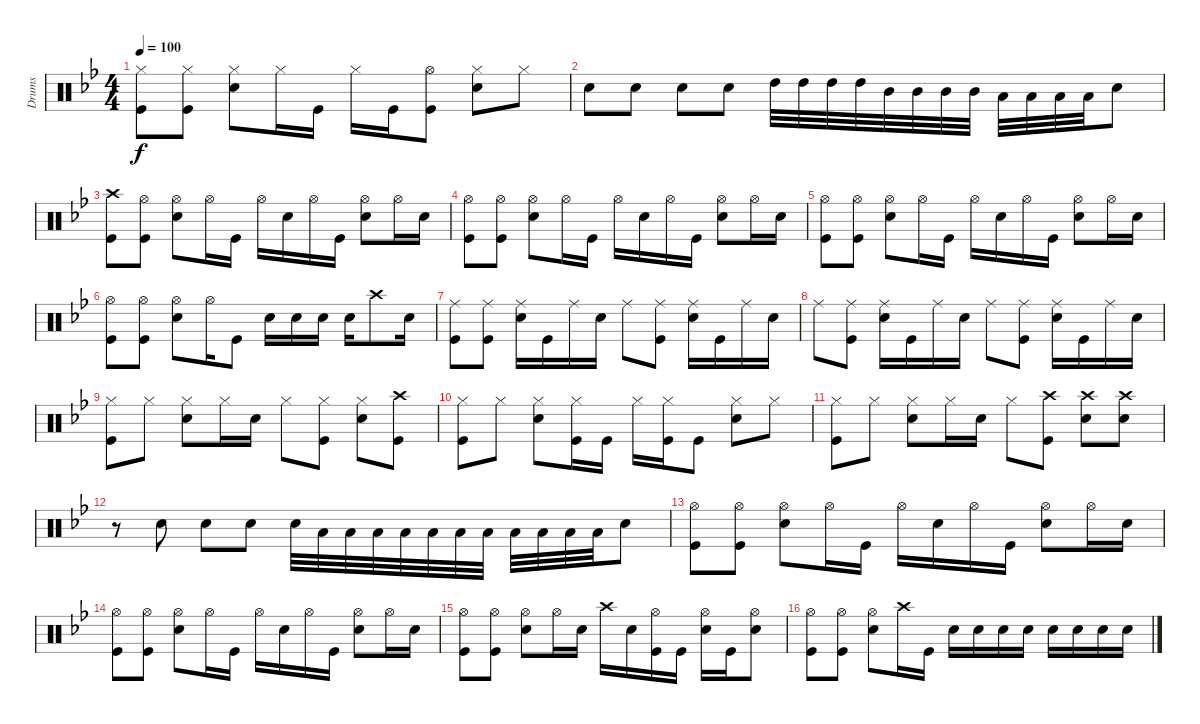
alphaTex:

\track ("Drums" "Drums") {instrument percussion}
\staff {score}
\articulation defaults
\ts (4 4)
\tempo 100
\clef neutral
\ks bb
("Hi-Hat (closed)" "Kick (hit)").8{dy f} ("Hi-Hat (closed)" "Kick (hit)").8 ("Hi-Hat (closed)" "Snare (hit) 2").8 "Hi-Hat (closed)".16 "Kick (hit)".16 "Hi-Hat (closed)".16 "Kick (hit)".16 ("Hi-Hat (open)" "Kick (hit)").8 ("Hi-Hat (closed)" "Snare (hit) 2").8 "Hi-Hat (closed)".8 |
"Snare (hit) 2".8 "Snare (hit) 2".8 "Snare (hit) 2".8 "Snare (hit) 2".8 "High Tom (hit)".32 "High Tom (hit)".32 "High Tom (hit)".32 "High Tom (hit)".32 "Mid Tom (hit)".32 "Mid Tom (hit)".32 "Mid Tom (hit)".32 "Mid Tom (hit)".32 "Low Floor Tom (hit)".32 "Low Floor Tom (hit)".32 "Low Floor Tom (hit)".32 "Low Floor Tom (hit)".32 "Snare (hit) 2".8 |
("Crash high (hit)" "Kick (hit)").8 ("Hi-Hat (open)" "Kick (hit)").8 ("Hi-Hat (open)" "Snare (hit) 2").8 "Hi-Hat (open)".16 "Kick (hit)".16 "Hi-Hat (open)".16 "Snare (hit) 2".16 "Hi-Hat (open)".16 "Kick (hit)".16 ("Hi-Hat (open)" "Snare (hit) 2").8 "Hi-Hat (open)".16 "Snare (hit) 2".16 |
("Hi-Hat (open)" "Kick (hit)").8 ("Hi-Hat (open)" "Kick (hit)").8 ("Hi-Hat (open)" "Snare (hit) 2").8 "Hi-Hat (open)".16 "Kick (hit)".16 "Hi-Hat (open)".16 "Snare (hit) 2".16 "Hi-Hat (open)".16 "Kick (hit)".16 ("Hi-Hat (open)" "Snare (hit) 2").8 "Hi-Hat (open)".16 "Snare (hit) 2".16 |
("Hi-Hat (open)" "Kick (hit)").8 ("Hi-Hat (open)" "Kick (hit)").8 ("Hi-Hat (open)" "Snare (hit) 2").8 "Hi-Hat (open)".16 "Kick (hit)".16 "Hi-Hat (open)".16 "Snare (hit) 2".16 "Hi-Hat (open)".16 "Kick (hit)".16 ("Hi-Hat (open)" "Snare (hit) 2").8 "Hi-Hat (open)".16 "Snare (hit) 2".16 |
("Hi-Hat (open)" "Kick (hit)").8 ("Hi-Hat (open)" "Kick (hit)").8 ("Hi-Hat (open)" "Snare (hit) 2").8 "Hi-Hat (open)".16 "Kick (hit)".8 "Snare (hit) 2".16 "Snare (hit) 2".16 "Snare (hit) 2".16 "Snare (hit) 2".16 "Crash high (hit)".8 "Snare (hit) 2".16 |
("Ride (middle)" "Kick (hit)").8 ("Ride (middle)" "Kick (hit)").8 ("Ride (middle)" "Snare (hit) 2").16 "Kick (hit)".16 "Ride (middle)".16 "Snare (hit) 2".16 "Ride (middle)".8 ("Ride (middle)" "Kick (hit)").8 ("Ride (middle)" "Snare (hit) 2").16 "Kick (hit)".16 "Ride (middle)".16 "Snare (hit) 2".16 |
"Ride (middle)".8 ("Ride (middle)" "Kick (hit)").8 ("Ride (middle)" "Snare (hit) 2").16 "Kick (hit)".16 "Ride (middle)".16 "Snare (hit) 2".16 "Ride (middle)".8 ("Ride (middle)" "Kick (hit)").8 ("Ride (middle)" "Snare (hit) 2").16 "Kick (hit)".16 "Ride (middle)".16 "Snare (hit) 2".16 |
("Hi-Hat (closed)" "Kick (hit)").8 "Hi-Hat (closed)".8 ("Hi-Hat (closed)" "Snare (hit) 2").8 "Hi-Hat (closed)".16 "Snare (hit) 2".16 "Hi-Hat (closed)".8 ("Hi-Hat (closed)" "Kick (hit)").8 ("Hi-Hat (closed)" "Snare (hit) 2").8 ("Crash high (hit)" "Kick (hit)").8 |
("Hi-Hat (closed)" "Kick (hit)").8 "Hi-Hat (closed)".8 ("Hi-Hat (closed)" "Snare (hit) 2").8 ("Hi-Hat (closed)" "Kick (hit)").16 "Kick (hit)".16 "Hi-Hat (closed)".16 ("Hi-Hat (closed)" "Kick (hit)").16 "Kick (hit)".8 ("Hi-Hat (closed)" "Snare (hit) 2").8 "Hi-Hat (closed)".8 |
("Hi-Hat (closed)" "Kick (hit)").8 "Hi-Hat (closed)".8 ("Hi-Hat (closed)" "Snare (hit) 2").8 "Hi-Hat (closed)".16 "Snare (hit) 2".16 "Hi-Hat (closed)".8 ("Crash high (hit)" "Kick (hit)").8 ("Crash high (hit)" "Snare (hit) 2").8 ("Crash high (hit)" "Snare (hit) 2").8 |
r.8 "Snare (hit) 2".8 "Snare (hit) 2".8 "Snare (hit) 2".8 "Snare (hit) 2".32 "Low Floor Tom (hit)".32 "Low Floor Tom (hit)".32 "Low Floor Tom (hit)".32 "Low Floor Tom (hit)".32 "Low Floor Tom (hit)".32 "Low Floor Tom (hit)".32 "Low Floor Tom (hit)".32 "Low Floor Tom (hit)".32 "Low Floor Tom (hit)".32 "Low Floor Tom (hit)".32 "Low Floor Tom (hit)".32 "Snare (hit) 2".8 |
\ks gminor
("Hi-Hat (open)" "Kick (hit)").8 ("Hi-Hat (open)" "Kick (hit)").8 ("Hi-Hat (open)" "Snare (hit) 2").8 "Hi-Hat (open)".16 "Kick (hit)".16 "Hi-Hat (open)".16 "Snare (hit) 2".16 "Hi-Hat (open)".16 "Kick (hit)".16 ("Hi-Hat (open)" "Snare (hit) 2").8 "Hi-Hat (open)".16 "Snare (hit) 2".16 |
("Hi-Hat (open)" "Kick (hit)").8 ("Hi-Hat (open)" "Kick (hit)").8 ("Hi-Hat (open)" "Snare (hit) 2").8 "Hi-Hat (open)".16 "Kick (hit)".16 "Hi-Hat (open)".16 "Snare (hit) 2".16 "Hi-Hat (open)".16 "Kick (hit)".16 ("Hi-Hat (open)" "Snare (hit) 2").8 "Hi-Hat (open)".16 "Snare (hit) 2".16 |
("Hi-Hat (open)" "Kick (hit)").8 ("Hi-Hat (open)" "Kick (hit)").8 ("Hi-Hat (open)" "Snare (hit) 2").8 "Hi-Hat (open)".16 "Snare (hit) 2".16 "Crash high (hit)".16 "Snare (hit) 2".16 ("Hi-Hat (open)" "Kick (hit)").16 "Kick (hit)".16 ("Hi-Hat (open)" "Snare (hit) 2").16 "Kick (hit)".16 ("Hi-Hat (open)" "Snare (hit) 2").8 |
("Hi-Hat (open)" "Kick (hit)").8 ("Hi-Hat (open)" "Kick (hit)").8 ("Hi-Hat (open)" "Snare (hit) 2").8 "Crash high (hit)".16 "Kick (hit)".16 "Snare (hit) 2".16 "Snare (hit) 2".16 "Snare (hit) 2".16 "Snare (hit) 2".16 "Snare (hit) 2".16 "Snare (hit) 2".16 "Snare (hit) 2".16 "Snare (hit) 2".16
